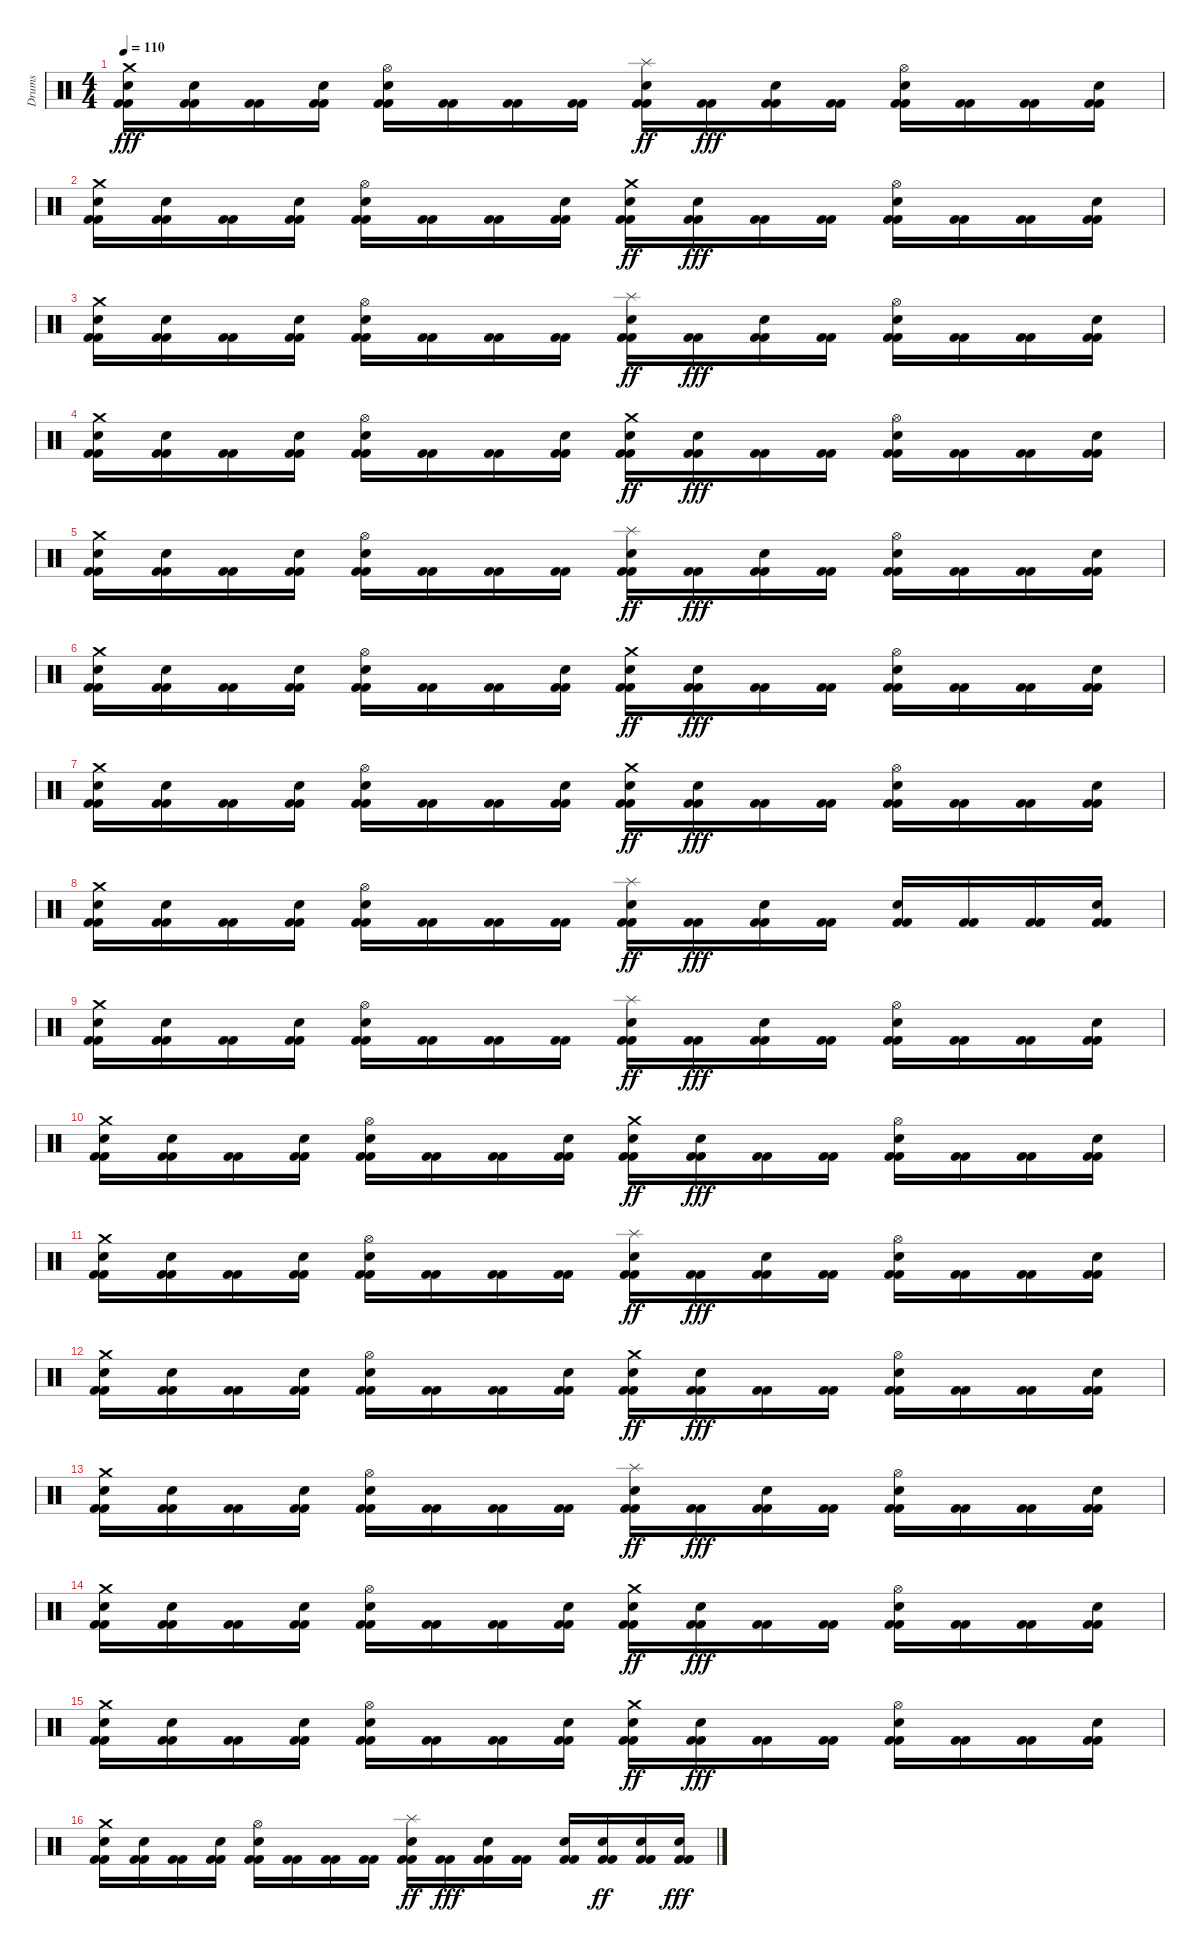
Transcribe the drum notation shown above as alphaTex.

\track ("Drums" "Drums") {instrument percussion}
\staff {score}
\articulation defaults
\ts (4 4)
\tempo 110
\clef neutral
\ks c
("Kick (hit) 2" "Kick (hit) 2" "Electric Snare (hit)" "Crash medium (hit)").16{dy fff} ("Kick (hit) 2" "Kick (hit) 2" "Electric Snare (hit)").16 ("Kick (hit) 2" "Kick (hit) 2").16 ("Kick (hit) 2" "Kick (hit) 2" "Electric Snare (hit)").16 ("Kick (hit) 2" "Kick (hit) 2" "Electric Snare (hit)" "Hi-Hat (open)").16 ("Kick (hit) 2" "Kick (hit) 2").16 ("Kick (hit) 2" "Kick (hit) 2").16 ("Kick (hit) 2" "Kick (hit) 2").16 ("Kick (hit) 2" "Kick (hit) 2" "Electric Snare (hit)" "Splash (hit)").16{dy ff} ("Kick (hit) 2" "Kick (hit) 2").16{dy fff} ("Kick (hit) 2" "Kick (hit) 2" "Electric Snare (hit)").16 ("Kick (hit) 2" "Kick (hit) 2").16 ("Kick (hit) 2" "Kick (hit) 2" "Electric Snare (hit)" "Hi-Hat (open)").16 ("Kick (hit) 2" "Kick (hit) 2").16 ("Kick (hit) 2" "Kick (hit) 2").16 ("Kick (hit) 2" "Kick (hit) 2" "Electric Snare (hit)").16 |
("Kick (hit) 2" "Kick (hit) 2" "Electric Snare (hit)" "Crash medium (hit)").16 ("Kick (hit) 2" "Kick (hit) 2" "Electric Snare (hit)").16 ("Kick (hit) 2" "Kick (hit) 2").16 ("Kick (hit) 2" "Kick (hit) 2" "Electric Snare (hit)").16 ("Kick (hit) 2" "Kick (hit) 2" "Electric Snare (hit)" "Hi-Hat (open)").16 ("Kick (hit) 2" "Kick (hit) 2").16 ("Kick (hit) 2" "Kick (hit) 2").16 ("Kick (hit) 2" "Kick (hit) 2" "Electric Snare (hit)").16 ("Kick (hit) 2" "Kick (hit) 2" "Electric Snare (hit)" "Crash medium (hit)").16{dy ff} ("Kick (hit) 2" "Kick (hit) 2" "Electric Snare (hit)").16{dy fff} ("Kick (hit) 2" "Kick (hit) 2").16 ("Kick (hit) 2" "Kick (hit) 2").16 ("Kick (hit) 2" "Kick (hit) 2" "Electric Snare (hit)" "Hi-Hat (open)").16 ("Kick (hit) 2" "Kick (hit) 2").16 ("Kick (hit) 2" "Kick (hit) 2").16 ("Kick (hit) 2" "Kick (hit) 2" "Electric Snare (hit)").16 |
("Kick (hit) 2" "Kick (hit) 2" "Electric Snare (hit)" "Crash medium (hit)").16 ("Kick (hit) 2" "Kick (hit) 2" "Electric Snare (hit)").16 ("Kick (hit) 2" "Kick (hit) 2").16 ("Kick (hit) 2" "Kick (hit) 2" "Electric Snare (hit)").16 ("Kick (hit) 2" "Kick (hit) 2" "Electric Snare (hit)" "Hi-Hat (open)").16 ("Kick (hit) 2" "Kick (hit) 2").16 ("Kick (hit) 2" "Kick (hit) 2").16 ("Kick (hit) 2" "Kick (hit) 2").16 ("Kick (hit) 2" "Kick (hit) 2" "Electric Snare (hit)" "Splash (hit)").16{dy ff} ("Kick (hit) 2" "Kick (hit) 2").16{dy fff} ("Kick (hit) 2" "Kick (hit) 2" "Electric Snare (hit)").16 ("Kick (hit) 2" "Kick (hit) 2").16 ("Kick (hit) 2" "Kick (hit) 2" "Electric Snare (hit)" "Hi-Hat (open)").16 ("Kick (hit) 2" "Kick (hit) 2").16 ("Kick (hit) 2" "Kick (hit) 2").16 ("Kick (hit) 2" "Kick (hit) 2" "Electric Snare (hit)").16 |
("Kick (hit) 2" "Kick (hit) 2" "Electric Snare (hit)" "Crash medium (hit)").16 ("Kick (hit) 2" "Kick (hit) 2" "Electric Snare (hit)").16 ("Kick (hit) 2" "Kick (hit) 2").16 ("Kick (hit) 2" "Kick (hit) 2" "Electric Snare (hit)").16 ("Kick (hit) 2" "Kick (hit) 2" "Electric Snare (hit)" "Hi-Hat (open)").16 ("Kick (hit) 2" "Kick (hit) 2").16 ("Kick (hit) 2" "Kick (hit) 2").16 ("Kick (hit) 2" "Kick (hit) 2" "Electric Snare (hit)").16 ("Kick (hit) 2" "Kick (hit) 2" "Electric Snare (hit)" "Crash medium (hit)").16{dy ff} ("Kick (hit) 2" "Kick (hit) 2" "Electric Snare (hit)").16{dy fff} ("Kick (hit) 2" "Kick (hit) 2").16 ("Kick (hit) 2" "Kick (hit) 2").16 ("Kick (hit) 2" "Kick (hit) 2" "Electric Snare (hit)" "Hi-Hat (open)").16 ("Kick (hit) 2" "Kick (hit) 2").16 ("Kick (hit) 2" "Kick (hit) 2").16 ("Kick (hit) 2" "Kick (hit) 2" "Electric Snare (hit)").16 |
("Kick (hit) 2" "Kick (hit) 2" "Electric Snare (hit)" "Crash medium (hit)").16 ("Kick (hit) 2" "Kick (hit) 2" "Electric Snare (hit)").16 ("Kick (hit) 2" "Kick (hit) 2").16 ("Kick (hit) 2" "Kick (hit) 2" "Electric Snare (hit)").16 ("Kick (hit) 2" "Kick (hit) 2" "Electric Snare (hit)" "Hi-Hat (open)").16 ("Kick (hit) 2" "Kick (hit) 2").16 ("Kick (hit) 2" "Kick (hit) 2").16 ("Kick (hit) 2" "Kick (hit) 2").16 ("Kick (hit) 2" "Kick (hit) 2" "Electric Snare (hit)" "Splash (hit)").16{dy ff} ("Kick (hit) 2" "Kick (hit) 2").16{dy fff} ("Kick (hit) 2" "Kick (hit) 2" "Electric Snare (hit)").16 ("Kick (hit) 2" "Kick (hit) 2").16 ("Kick (hit) 2" "Kick (hit) 2" "Electric Snare (hit)" "Hi-Hat (open)").16 ("Kick (hit) 2" "Kick (hit) 2").16 ("Kick (hit) 2" "Kick (hit) 2").16 ("Kick (hit) 2" "Kick (hit) 2" "Electric Snare (hit)").16 |
("Kick (hit) 2" "Kick (hit) 2" "Electric Snare (hit)" "Crash medium (hit)").16 ("Kick (hit) 2" "Kick (hit) 2" "Electric Snare (hit)").16 ("Kick (hit) 2" "Kick (hit) 2").16 ("Kick (hit) 2" "Kick (hit) 2" "Electric Snare (hit)").16 ("Kick (hit) 2" "Kick (hit) 2" "Electric Snare (hit)" "Hi-Hat (open)").16 ("Kick (hit) 2" "Kick (hit) 2").16 ("Kick (hit) 2" "Kick (hit) 2").16 ("Kick (hit) 2" "Kick (hit) 2" "Electric Snare (hit)").16 ("Kick (hit) 2" "Kick (hit) 2" "Electric Snare (hit)" "Crash medium (hit)").16{dy ff} ("Kick (hit) 2" "Kick (hit) 2" "Electric Snare (hit)").16{dy fff} ("Kick (hit) 2" "Kick (hit) 2").16 ("Kick (hit) 2" "Kick (hit) 2").16 ("Kick (hit) 2" "Kick (hit) 2" "Electric Snare (hit)" "Hi-Hat (open)").16 ("Kick (hit) 2" "Kick (hit) 2").16 ("Kick (hit) 2" "Kick (hit) 2").16 ("Kick (hit) 2" "Kick (hit) 2" "Electric Snare (hit)").16 |
("Kick (hit) 2" "Kick (hit) 2" "Electric Snare (hit)" "Crash medium (hit)").16 ("Kick (hit) 2" "Kick (hit) 2" "Electric Snare (hit)").16 ("Kick (hit) 2" "Kick (hit) 2").16 ("Kick (hit) 2" "Kick (hit) 2" "Electric Snare (hit)").16 ("Kick (hit) 2" "Kick (hit) 2" "Electric Snare (hit)" "Hi-Hat (open)").16 ("Kick (hit) 2" "Kick (hit) 2").16 ("Kick (hit) 2" "Kick (hit) 2").16 ("Kick (hit) 2" "Kick (hit) 2" "Electric Snare (hit)").16 ("Kick (hit) 2" "Kick (hit) 2" "Electric Snare (hit)" "Crash medium (hit)").16{dy ff} ("Kick (hit) 2" "Kick (hit) 2" "Electric Snare (hit)").16{dy fff} ("Kick (hit) 2" "Kick (hit) 2").16 ("Kick (hit) 2" "Kick (hit) 2").16 ("Kick (hit) 2" "Kick (hit) 2" "Electric Snare (hit)" "Hi-Hat (open)").16 ("Kick (hit) 2" "Kick (hit) 2").16 ("Kick (hit) 2" "Kick (hit) 2").16 ("Kick (hit) 2" "Kick (hit) 2" "Electric Snare (hit)").16 |
("Kick (hit) 2" "Kick (hit) 2" "Electric Snare (hit)" "Crash medium (hit)").16 ("Kick (hit) 2" "Kick (hit) 2" "Electric Snare (hit)").16 ("Kick (hit) 2" "Kick (hit) 2").16 ("Kick (hit) 2" "Kick (hit) 2" "Electric Snare (hit)").16 ("Kick (hit) 2" "Kick (hit) 2" "Electric Snare (hit)" "Hi-Hat (open)").16 ("Kick (hit) 2" "Kick (hit) 2").16 ("Kick (hit) 2" "Kick (hit) 2").16 ("Kick (hit) 2" "Kick (hit) 2").16 ("Kick (hit) 2" "Kick (hit) 2" "Electric Snare (hit)" "Splash (hit)").16{dy ff} ("Kick (hit) 2" "Kick (hit) 2").16{dy fff} ("Kick (hit) 2" "Kick (hit) 2" "Electric Snare (hit)").16 ("Kick (hit) 2" "Kick (hit) 2").16 ("Kick (hit) 2" "Kick (hit) 2" "Electric Snare (hit)").16 ("Kick (hit) 2" "Kick (hit) 2").16 ("Kick (hit) 2" "Kick (hit) 2").16 ("Kick (hit) 2" "Kick (hit) 2" "Electric Snare (hit)").16 |
("Kick (hit) 2" "Kick (hit) 2" "Electric Snare (hit)" "Crash medium (hit)").16 ("Kick (hit) 2" "Kick (hit) 2" "Electric Snare (hit)").16 ("Kick (hit) 2" "Kick (hit) 2").16 ("Kick (hit) 2" "Kick (hit) 2" "Electric Snare (hit)").16 ("Kick (hit) 2" "Kick (hit) 2" "Electric Snare (hit)" "Hi-Hat (open)").16 ("Kick (hit) 2" "Kick (hit) 2").16 ("Kick (hit) 2" "Kick (hit) 2").16 ("Kick (hit) 2" "Kick (hit) 2").16 ("Kick (hit) 2" "Kick (hit) 2" "Electric Snare (hit)" "Splash (hit)").16{dy ff} ("Kick (hit) 2" "Kick (hit) 2").16{dy fff} ("Kick (hit) 2" "Kick (hit) 2" "Electric Snare (hit)").16 ("Kick (hit) 2" "Kick (hit) 2").16 ("Kick (hit) 2" "Kick (hit) 2" "Electric Snare (hit)" "Hi-Hat (open)").16 ("Kick (hit) 2" "Kick (hit) 2").16 ("Kick (hit) 2" "Kick (hit) 2").16 ("Kick (hit) 2" "Kick (hit) 2" "Electric Snare (hit)").16 |
("Kick (hit) 2" "Kick (hit) 2" "Electric Snare (hit)" "Crash medium (hit)").16 ("Kick (hit) 2" "Kick (hit) 2" "Electric Snare (hit)").16 ("Kick (hit) 2" "Kick (hit) 2").16 ("Kick (hit) 2" "Kick (hit) 2" "Electric Snare (hit)").16 ("Kick (hit) 2" "Kick (hit) 2" "Electric Snare (hit)" "Hi-Hat (open)").16 ("Kick (hit) 2" "Kick (hit) 2").16 ("Kick (hit) 2" "Kick (hit) 2").16 ("Kick (hit) 2" "Kick (hit) 2" "Electric Snare (hit)").16 ("Kick (hit) 2" "Kick (hit) 2" "Electric Snare (hit)" "Crash medium (hit)").16{dy ff} ("Kick (hit) 2" "Kick (hit) 2" "Electric Snare (hit)").16{dy fff} ("Kick (hit) 2" "Kick (hit) 2").16 ("Kick (hit) 2" "Kick (hit) 2").16 ("Kick (hit) 2" "Kick (hit) 2" "Electric Snare (hit)" "Hi-Hat (open)").16 ("Kick (hit) 2" "Kick (hit) 2").16 ("Kick (hit) 2" "Kick (hit) 2").16 ("Kick (hit) 2" "Kick (hit) 2" "Electric Snare (hit)").16 |
("Kick (hit) 2" "Kick (hit) 2" "Electric Snare (hit)" "Crash medium (hit)").16 ("Kick (hit) 2" "Kick (hit) 2" "Electric Snare (hit)").16 ("Kick (hit) 2" "Kick (hit) 2").16 ("Kick (hit) 2" "Kick (hit) 2" "Electric Snare (hit)").16 ("Kick (hit) 2" "Kick (hit) 2" "Electric Snare (hit)" "Hi-Hat (open)").16 ("Kick (hit) 2" "Kick (hit) 2").16 ("Kick (hit) 2" "Kick (hit) 2").16 ("Kick (hit) 2" "Kick (hit) 2").16 ("Kick (hit) 2" "Kick (hit) 2" "Electric Snare (hit)" "Splash (hit)").16{dy ff} ("Kick (hit) 2" "Kick (hit) 2").16{dy fff} ("Kick (hit) 2" "Kick (hit) 2" "Electric Snare (hit)").16 ("Kick (hit) 2" "Kick (hit) 2").16 ("Kick (hit) 2" "Kick (hit) 2" "Electric Snare (hit)" "Hi-Hat (open)").16 ("Kick (hit) 2" "Kick (hit) 2").16 ("Kick (hit) 2" "Kick (hit) 2").16 ("Kick (hit) 2" "Kick (hit) 2" "Electric Snare (hit)").16 |
("Kick (hit) 2" "Kick (hit) 2" "Electric Snare (hit)" "Crash medium (hit)").16 ("Kick (hit) 2" "Kick (hit) 2" "Electric Snare (hit)").16 ("Kick (hit) 2" "Kick (hit) 2").16 ("Kick (hit) 2" "Kick (hit) 2" "Electric Snare (hit)").16 ("Kick (hit) 2" "Kick (hit) 2" "Electric Snare (hit)" "Hi-Hat (open)").16 ("Kick (hit) 2" "Kick (hit) 2").16 ("Kick (hit) 2" "Kick (hit) 2").16 ("Kick (hit) 2" "Kick (hit) 2" "Electric Snare (hit)").16 ("Kick (hit) 2" "Kick (hit) 2" "Electric Snare (hit)" "Crash medium (hit)").16{dy ff} ("Kick (hit) 2" "Kick (hit) 2" "Electric Snare (hit)").16{dy fff} ("Kick (hit) 2" "Kick (hit) 2").16 ("Kick (hit) 2" "Kick (hit) 2").16 ("Kick (hit) 2" "Kick (hit) 2" "Electric Snare (hit)" "Hi-Hat (open)").16 ("Kick (hit) 2" "Kick (hit) 2").16 ("Kick (hit) 2" "Kick (hit) 2").16 ("Kick (hit) 2" "Kick (hit) 2" "Electric Snare (hit)").16 |
("Kick (hit) 2" "Kick (hit) 2" "Electric Snare (hit)" "Crash medium (hit)").16 ("Kick (hit) 2" "Kick (hit) 2" "Electric Snare (hit)").16 ("Kick (hit) 2" "Kick (hit) 2").16 ("Kick (hit) 2" "Kick (hit) 2" "Electric Snare (hit)").16 ("Kick (hit) 2" "Kick (hit) 2" "Electric Snare (hit)" "Hi-Hat (open)").16 ("Kick (hit) 2" "Kick (hit) 2").16 ("Kick (hit) 2" "Kick (hit) 2").16 ("Kick (hit) 2" "Kick (hit) 2").16 ("Kick (hit) 2" "Kick (hit) 2" "Electric Snare (hit)" "Splash (hit)").16{dy ff} ("Kick (hit) 2" "Kick (hit) 2").16{dy fff} ("Kick (hit) 2" "Kick (hit) 2" "Electric Snare (hit)").16 ("Kick (hit) 2" "Kick (hit) 2").16 ("Kick (hit) 2" "Kick (hit) 2" "Electric Snare (hit)" "Hi-Hat (open)").16 ("Kick (hit) 2" "Kick (hit) 2").16 ("Kick (hit) 2" "Kick (hit) 2").16 ("Kick (hit) 2" "Kick (hit) 2" "Electric Snare (hit)").16 |
("Kick (hit) 2" "Kick (hit) 2" "Electric Snare (hit)" "Crash medium (hit)").16 ("Kick (hit) 2" "Kick (hit) 2" "Electric Snare (hit)").16 ("Kick (hit) 2" "Kick (hit) 2").16 ("Kick (hit) 2" "Kick (hit) 2" "Electric Snare (hit)").16 ("Kick (hit) 2" "Kick (hit) 2" "Electric Snare (hit)" "Hi-Hat (open)").16 ("Kick (hit) 2" "Kick (hit) 2").16 ("Kick (hit) 2" "Kick (hit) 2").16 ("Kick (hit) 2" "Kick (hit) 2" "Electric Snare (hit)").16 ("Kick (hit) 2" "Kick (hit) 2" "Electric Snare (hit)" "Crash medium (hit)").16{dy ff} ("Kick (hit) 2" "Kick (hit) 2" "Electric Snare (hit)").16{dy fff} ("Kick (hit) 2" "Kick (hit) 2").16 ("Kick (hit) 2" "Kick (hit) 2").16 ("Kick (hit) 2" "Kick (hit) 2" "Electric Snare (hit)" "Hi-Hat (open)").16 ("Kick (hit) 2" "Kick (hit) 2").16 ("Kick (hit) 2" "Kick (hit) 2").16 ("Kick (hit) 2" "Kick (hit) 2" "Electric Snare (hit)").16 |
("Kick (hit) 2" "Kick (hit) 2" "Electric Snare (hit)" "Crash medium (hit)").16 ("Kick (hit) 2" "Kick (hit) 2" "Electric Snare (hit)").16 ("Kick (hit) 2" "Kick (hit) 2").16 ("Kick (hit) 2" "Kick (hit) 2" "Electric Snare (hit)").16 ("Kick (hit) 2" "Kick (hit) 2" "Electric Snare (hit)" "Hi-Hat (open)").16 ("Kick (hit) 2" "Kick (hit) 2").16 ("Kick (hit) 2" "Kick (hit) 2").16 ("Kick (hit) 2" "Kick (hit) 2" "Electric Snare (hit)").16 ("Kick (hit) 2" "Kick (hit) 2" "Electric Snare (hit)" "Crash medium (hit)").16{dy ff} ("Kick (hit) 2" "Kick (hit) 2" "Electric Snare (hit)").16{dy fff} ("Kick (hit) 2" "Kick (hit) 2").16 ("Kick (hit) 2" "Kick (hit) 2").16 ("Kick (hit) 2" "Kick (hit) 2" "Electric Snare (hit)" "Hi-Hat (open)").16 ("Kick (hit) 2" "Kick (hit) 2").16 ("Kick (hit) 2" "Kick (hit) 2").16 ("Kick (hit) 2" "Kick (hit) 2" "Electric Snare (hit)").16 |
("Kick (hit) 2" "Kick (hit) 2" "Electric Snare (hit)" "Crash medium (hit)").16 ("Kick (hit) 2" "Kick (hit) 2" "Electric Snare (hit)").16 ("Kick (hit) 2" "Kick (hit) 2").16 ("Kick (hit) 2" "Kick (hit) 2" "Electric Snare (hit)").16 ("Kick (hit) 2" "Kick (hit) 2" "Electric Snare (hit)" "Hi-Hat (open)").16 ("Kick (hit) 2" "Kick (hit) 2").16 ("Kick (hit) 2" "Kick (hit) 2").16 ("Kick (hit) 2" "Kick (hit) 2").16 ("Kick (hit) 2" "Kick (hit) 2" "Electric Snare (hit)" "Splash (hit)").16{dy ff} ("Kick (hit) 2" "Kick (hit) 2").16{dy fff} ("Kick (hit) 2" "Kick (hit) 2" "Electric Snare (hit)").16 ("Kick (hit) 2" "Kick (hit) 2").16 ("Kick (hit) 2" "Kick (hit) 2" "Electric Snare (hit)").16 ("Kick (hit) 2" "Kick (hit) 2" "Electric Snare (hit)").16{dy ff} ("Kick (hit) 2" "Kick (hit) 2" "Electric Snare (hit)").16 ("Kick (hit) 2" "Kick (hit) 2" "Electric Snare (hit)").16{dy fff}
